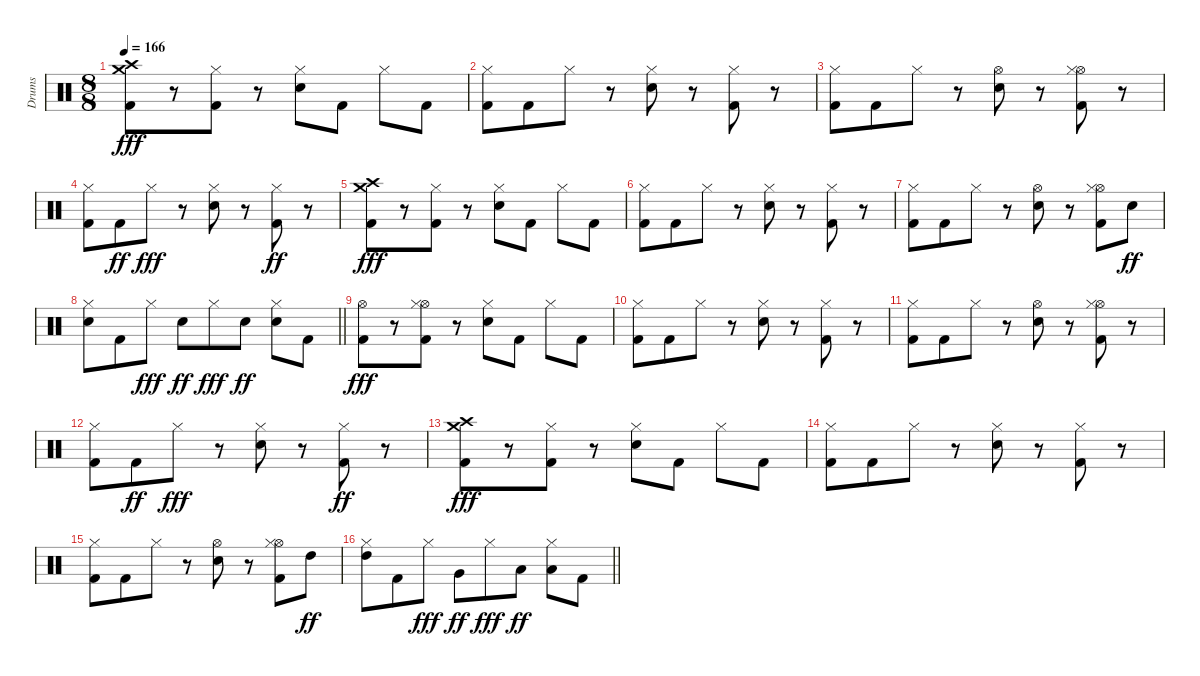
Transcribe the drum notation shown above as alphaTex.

\track ("Drums" "Drums") {instrument percussion}
\staff {score}
\articulation defaults
\ts (8 8)
\section ("" "")
\tempo 166
\clef neutral
\ks c
("Crash high (hit)" "Crash medium (hit)" "Kick (hit) 2").8{dy fff} r.8 ("Hi-Hat (closed)" "Kick (hit) 2").8 r.8 ("Hi-Hat (closed)" "Electric Snare (hit)").8 "Kick (hit) 2".8 "Hi-Hat (closed)".8 "Kick (hit) 2".8 |
("Hi-Hat (closed)" "Kick (hit) 2").8 "Kick (hit) 2".8 "Hi-Hat (closed)".8 r.8 ("Hi-Hat (closed)" "Electric Snare (hit)").8 r.8 ("Hi-Hat (closed)" "Kick (hit) 2").8 r.8 |
("Hi-Hat (closed)" "Kick (hit) 2").8 "Kick (hit) 2".8 "Hi-Hat (closed)".8 r.8 ("Hi-Hat (open)" "Electric Snare (hit)").8 r.8 ("Hi-Hat (open)" "Hi-Hat (closed)" "Kick (hit) 2").8 r.8 |
("Hi-Hat (closed)" "Kick (hit) 2").8 "Kick (hit) 2".8{dy ff} "Hi-Hat (closed)".8{dy fff} r.8 ("Hi-Hat (closed)" "Electric Snare (hit)").8 r.8 ("Hi-Hat (closed)" "Kick (hit) 2").8{dy ff} r.8 |
("Crash high (hit)" "Crash medium (hit)" "Kick (hit) 2").8{dy fff} r.8 ("Hi-Hat (closed)" "Kick (hit) 2").8 r.8 ("Hi-Hat (closed)" "Electric Snare (hit)").8 "Kick (hit) 2".8 "Hi-Hat (closed)".8 "Kick (hit) 2".8 |
("Hi-Hat (closed)" "Kick (hit) 2").8 "Kick (hit) 2".8 "Hi-Hat (closed)".8 r.8 ("Hi-Hat (closed)" "Electric Snare (hit)").8 r.8 ("Hi-Hat (closed)" "Kick (hit) 2").8 r.8 |
("Hi-Hat (closed)" "Kick (hit) 2").8 "Kick (hit) 2".8 "Hi-Hat (closed)".8 r.8 ("Hi-Hat (open)" "Electric Snare (hit)").8 r.8 ("Hi-Hat (open)" "Hi-Hat (closed)" "Kick (hit) 2").8 "Electric Snare (hit)".8{dy ff} |
\barLineRight lightlight
("Hi-Hat (closed)" "Electric Snare (hit)").8 "Kick (hit) 2".8 "Hi-Hat (closed)".8{dy fff} "Electric Snare (hit)".8{dy ff} "Hi-Hat (closed)".8{dy fff} "Electric Snare (hit)".8{dy ff} ("Hi-Hat (closed)" "Electric Snare (hit)").8 "Kick (hit) 2".8 |
("Hi-Hat (open)" "Kick (hit) 2").8{dy fff} r.8 ("Hi-Hat (open)" "Hi-Hat (closed)" "Kick (hit) 2").8 r.8 ("Hi-Hat (closed)" "Electric Snare (hit)").8 "Kick (hit) 2".8 "Hi-Hat (closed)".8 "Kick (hit) 2".8 |
("Hi-Hat (closed)" "Kick (hit) 2").8 "Kick (hit) 2".8 "Hi-Hat (closed)".8 r.8 ("Hi-Hat (closed)" "Electric Snare (hit)").8 r.8 ("Hi-Hat (closed)" "Kick (hit) 2").8 r.8 |
("Hi-Hat (closed)" "Kick (hit) 2").8 "Kick (hit) 2".8 "Hi-Hat (closed)".8 r.8 ("Hi-Hat (open)" "Electric Snare (hit)").8 r.8 ("Hi-Hat (open)" "Hi-Hat (closed)" "Kick (hit) 2").8 r.8 |
("Hi-Hat (closed)" "Kick (hit) 2").8 "Kick (hit) 2".8{dy ff} "Hi-Hat (closed)".8{dy fff} r.8 ("Hi-Hat (closed)" "Electric Snare (hit)").8 r.8 ("Hi-Hat (closed)" "Kick (hit) 2").8{dy ff} r.8 |
("Crash high (hit)" "Crash medium (hit)" "Kick (hit) 2").8{dy fff} r.8 ("Hi-Hat (closed)" "Kick (hit) 2").8 r.8 ("Hi-Hat (closed)" "Electric Snare (hit)").8 "Kick (hit) 2".8 "Hi-Hat (closed)".8 "Kick (hit) 2".8 |
("Hi-Hat (closed)" "Kick (hit) 2").8 "Kick (hit) 2".8 "Hi-Hat (closed)".8 r.8 ("Hi-Hat (closed)" "Electric Snare (hit)").8 r.8 ("Hi-Hat (closed)" "Kick (hit) 2").8 r.8 |
("Hi-Hat (closed)" "Kick (hit) 2").8 "Kick (hit) 2".8 "Hi-Hat (closed)".8 r.8 ("Hi-Hat (open)" "Electric Snare (hit)").8 r.8 ("Hi-Hat (open)" "Hi-Hat (closed)" "Kick (hit) 2").8 "High Tom (hit)".8{dy ff} |
\barLineRight lightlight
("Hi-Hat (closed)" "High Tom (hit)").8 "Kick (hit) 2".8 "Hi-Hat (closed)".8{dy fff} "Very Low Tom (hit)".8{dy ff} "Hi-Hat (closed)".8{dy fff} "Low Floor Tom (hit)".8{dy ff} ("Hi-Hat (closed)" "Low Floor Tom (hit)").8 "Kick (hit) 2".8
